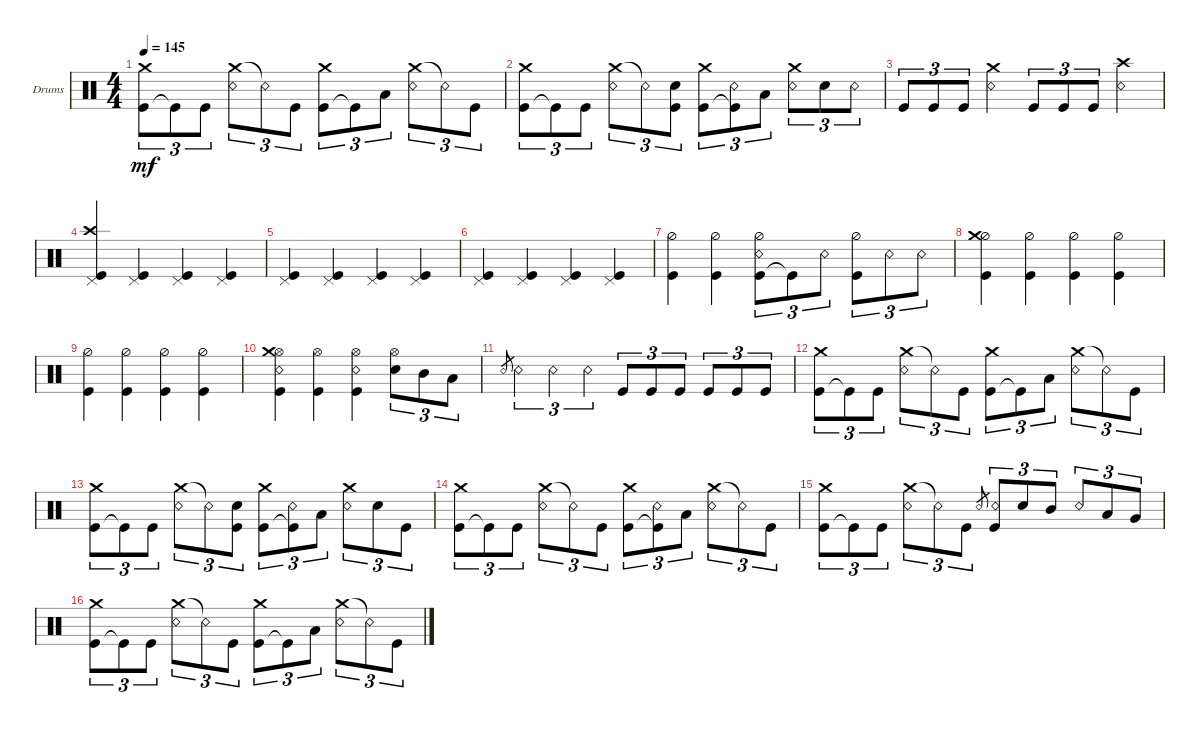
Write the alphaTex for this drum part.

\defaultSystemsLayout 4
\bracketExtendMode groupsimilarinstruments
\firstSystemTrackNameOrientation horizontal
\otherSystemsTrackNameOrientation horizontal
\track ("Drums" "Drums") {instrument percussion}
\staff {score}
\articulation defaults
\ts (4 4)
\tempo 145
\clef neutral
\ks c
("Kick (hit)" "Crash medium (hit)").8{tu (3 2) dy mf} "Kick (hit)"{t}.8{tu (3 2)} "Kick (hit)".8{tu (3 2)} ("Crash medium (hit)" "Snare (rim shot)").8{tu (3 2)} "Snare (rim shot)"{t}.8{tu (3 2)} "Kick (hit)".8{tu (3 2)} ("Kick (hit)" "Crash medium (hit)").8{tu (3 2)} "Kick (hit)"{t}.8{tu (3 2)} "Low Tom (hit)".8{tu (3 2)} ("Crash medium (hit)" "Snare (rim shot)").8{tu (3 2)} "Snare (rim shot)"{t}.8{tu (3 2)} "Kick (hit)".8{tu (3 2)} |
("Kick (hit)" "Crash medium (hit)").8{tu (3 2)} "Kick (hit)"{t}.8{tu (3 2)} "Kick (hit)".8{tu (3 2)} ("Crash medium (hit)" "Snare (rim shot)").8{tu (3 2)} "Snare (rim shot)"{t}.8{tu (3 2)} ("Kick (hit)" "Snare (hit) 2").8{tu (3 2)} ("Kick (hit)" "Crash medium (hit)").8{tu (3 2)} ("Kick (hit)"{t} "Snare (rim shot)").8{tu (3 2)} "Low Tom (hit)".8{tu (3 2)} ("Crash medium (hit)" "Snare (rim shot)").8{tu (3 2)} "Snare (hit) 2".8{tu (3 2)} "Snare (rim shot)".8{tu (3 2)} |
"Kick (hit)".8{tu (3 2)} "Kick (hit)".8{tu (3 2)} "Kick (hit)".8{tu (3 2)} ("Crash medium (hit)" "Snare (rim shot)").4 "Kick (hit)".8{tu (3 2)} "Kick (hit)".8{tu (3 2)} "Kick (hit)".8{tu (3 2)} ("Crash high (hit)" "Snare (rim shot)").4 |
("Kick (hit)" "Pedal Hi-Hat (hit)" "Crash high (hit)").4 ("Kick (hit)" "Pedal Hi-Hat (hit)").4 ("Pedal Hi-Hat (hit)" "Kick (hit)").4 ("Pedal Hi-Hat (hit)" "Kick (hit)").4 |
("Kick (hit)" "Pedal Hi-Hat (hit)").4 ("Kick (hit)" "Pedal Hi-Hat (hit)").4 ("Kick (hit)" "Pedal Hi-Hat (hit)").4 ("Kick (hit)" "Pedal Hi-Hat (hit)").4 |
("Kick (hit)" "Pedal Hi-Hat (hit)").4 ("Kick (hit)" "Pedal Hi-Hat (hit)").4 ("Kick (hit)" "Pedal Hi-Hat (hit)").4 ("Kick (hit)" "Pedal Hi-Hat (hit)").4 |
("Kick (hit)" "Hi-Hat (half)").4 ("Kick (hit)" "Hi-Hat (half)").4 ("Kick (hit)" "Hi-Hat (half)" "Snare (rim shot)").8{tu (3 2)} "Kick (hit)"{t}.8{tu (3 2)} "Snare (rim shot)".8{tu (3 2)} ("Kick (hit)" "Hi-Hat (half)").8{tu (3 2)} "Snare (rim shot)".8{tu (3 2)} "Snare (rim shot)".8{tu (3 2)} |
("Kick (hit)" "Hi-Hat (half)" "Crash medium (hit)").4 ("Kick (hit)" "Hi-Hat (half)").4 ("Kick (hit)" "Hi-Hat (half)").4 ("Kick (hit)" "Hi-Hat (half)").4 |
("Kick (hit)" "Hi-Hat (half)").4 ("Kick (hit)" "Hi-Hat (half)").4 ("Kick (hit)" "Hi-Hat (half)").4 ("Kick (hit)" "Hi-Hat (half)").4 |
("Kick (hit)" "Hi-Hat (open)" "Snare (rim shot)" "Crash medium (hit)").4 ("Kick (hit)" "Hi-Hat (open)").4 ("Kick (hit)" "Hi-Hat (open)" "Snare (rim shot)").4 ("Hi-Hat (open)" "Snare (hit) 2").8{tu (3 2)} "Mid Tom (hit)".8{tu (3 2)} "Low Tom (hit)".8{tu (3 2)} |
"Snare (rim shot)".8{gr} "Snare (rim shot)".4{tu (3 2)} "Snare (rim shot)".4{tu (3 2)} "Snare (rim shot)".4{tu (3 2)} "Kick (hit)".8{tu (3 2)} "Kick (hit)".8{tu (3 2)} "Kick (hit)".8{tu (3 2)} "Kick (hit)".8{tu (3 2)} "Kick (hit)".8{tu (3 2)} "Kick (hit)".8{tu (3 2)} |
("Kick (hit)" "Crash medium (hit)").8{tu (3 2)} "Kick (hit)"{t}.8{tu (3 2)} "Kick (hit)".8{tu (3 2)} ("Crash medium (hit)" "Snare (rim shot)").8{tu (3 2)} "Snare (rim shot)"{t}.8{tu (3 2)} "Kick (hit)".8{tu (3 2)} ("Kick (hit)" "Crash medium (hit)").8{tu (3 2)} "Kick (hit)"{t}.8{tu (3 2)} "Low Tom (hit)".8{tu (3 2)} ("Crash medium (hit)" "Snare (rim shot)").8{tu (3 2)} "Snare (rim shot)"{t}.8{tu (3 2)} "Kick (hit)".8{tu (3 2)} |
("Kick (hit)" "Crash medium (hit)").8{tu (3 2)} "Kick (hit)"{t}.8{tu (3 2)} "Kick (hit)".8{tu (3 2)} ("Crash medium (hit)" "Snare (rim shot)").8{tu (3 2)} "Snare (rim shot)"{t}.8{tu (3 2)} ("Kick (hit)" "Snare (hit) 2").8{tu (3 2)} ("Kick (hit)" "Crash medium (hit)").8{tu (3 2)} ("Kick (hit)"{t} "Snare (rim shot)").8{tu (3 2)} "Low Tom (hit)".8{tu (3 2)} ("Crash medium (hit)" "Snare (rim shot)").8{tu (3 2)} "Snare (hit) 2".8{tu (3 2)} "Kick (hit)".8{tu (3 2)} |
("Kick (hit)" "Crash medium (hit)").8{tu (3 2)} "Kick (hit)"{t}.8{tu (3 2)} "Kick (hit)".8{tu (3 2)} ("Crash medium (hit)" "Snare (rim shot)").8{tu (3 2)} "Snare (rim shot)"{t}.8{tu (3 2)} "Kick (hit)".8{tu (3 2)} ("Kick (hit)" "Crash medium (hit)").8{tu (3 2)} ("Kick (hit)"{t} "Snare (rim shot)").8{tu (3 2)} "Low Tom (hit)".8{tu (3 2)} ("Crash medium (hit)" "Snare (rim shot)").8{tu (3 2)} "Snare (rim shot)"{t}.8{tu (3 2)} "Kick (hit)".8{tu (3 2)} |
("Kick (hit)" "Crash medium (hit)").8{tu (3 2)} "Kick (hit)"{t}.8{tu (3 2)} "Kick (hit)".8{tu (3 2)} ("Crash medium (hit)" "Snare (rim shot)").8{tu (3 2)} "Snare (rim shot)"{t}.8{tu (3 2)} "Kick (hit)".8{tu (3 2)} "Snare (rim shot)".8{gr} ("Kick (hit)" "Snare (rim shot)").8{tu (3 2)} "Snare (hit) 2".8{tu (3 2)} "Mid Tom (hit)".8{tu (3 2)} "Snare (rim shot)".8{tu (3 2)} "Low Tom (hit)".8{tu (3 2)} "Very Low Tom (hit)".8{tu (3 2)} |
("Kick (hit)" "Crash medium (hit)").8{tu (3 2)} "Kick (hit)"{t}.8{tu (3 2)} "Kick (hit)".8{tu (3 2)} ("Crash medium (hit)" "Snare (rim shot)").8{tu (3 2)} "Snare (rim shot)"{t}.8{tu (3 2)} "Kick (hit)".8{tu (3 2)} ("Kick (hit)" "Crash medium (hit)").8{tu (3 2)} "Kick (hit)"{t}.8{tu (3 2)} "Low Tom (hit)".8{tu (3 2)} ("Crash medium (hit)" "Snare (rim shot)").8{tu (3 2)} "Snare (rim shot)"{t}.8{tu (3 2)} "Kick (hit)".8{tu (3 2)}
